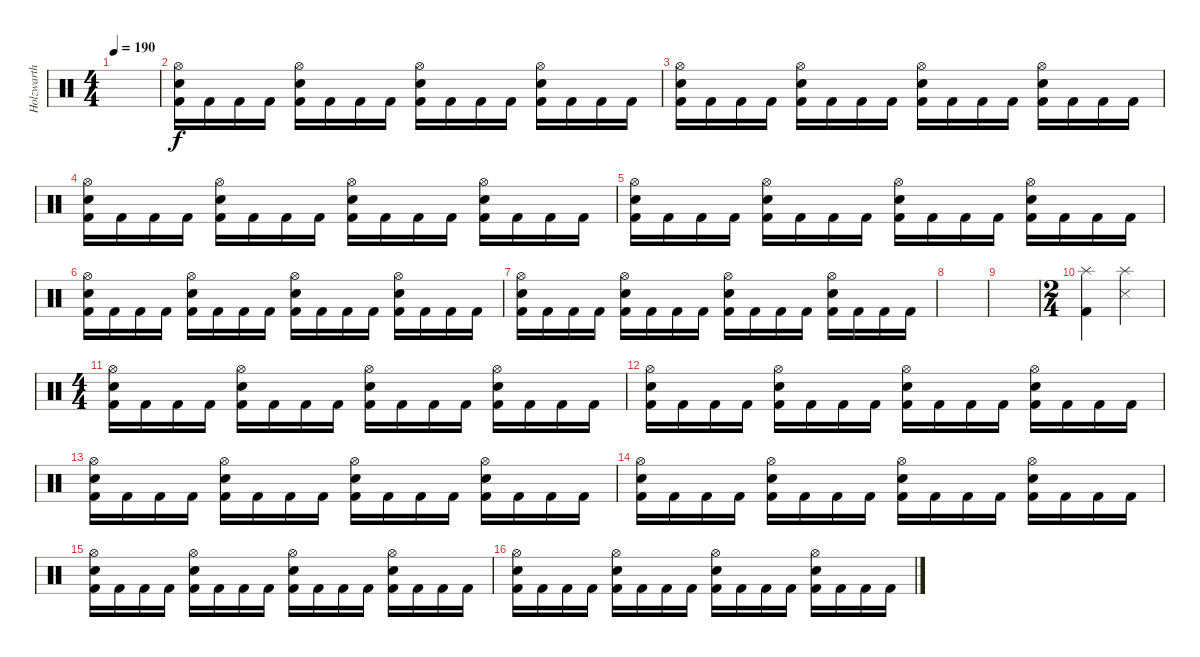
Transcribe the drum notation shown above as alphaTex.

\track ("Holzwarth" "Holzwarth") {instrument percussion}
\staff {score}
\articulation defaults
\ts (4 4)
\tempo 190
\clef neutral
\ks c
|
("Hi-Hat (open)" "Snare (hit) 2" "Kick (hit) 2").16 "Kick (hit) 2".16 "Kick (hit) 2".16 "Kick (hit) 2".16 ("Hi-Hat (open)" "Snare (hit) 2" "Kick (hit) 2").16 "Kick (hit) 2".16 "Kick (hit) 2".16 "Kick (hit) 2".16 ("Hi-Hat (open)" "Snare (hit) 2" "Kick (hit) 2").16 "Kick (hit) 2".16 "Kick (hit) 2".16 "Kick (hit) 2".16 ("Hi-Hat (open)" "Snare (hit) 2" "Kick (hit) 2").16 "Kick (hit) 2".16 "Kick (hit) 2".16 "Kick (hit) 2".16 |
("Hi-Hat (open)" "Snare (hit) 2" "Kick (hit) 2").16 "Kick (hit) 2".16 "Kick (hit) 2".16 "Kick (hit) 2".16 ("Hi-Hat (open)" "Snare (hit) 2" "Kick (hit) 2").16 "Kick (hit) 2".16 "Kick (hit) 2".16 "Kick (hit) 2".16 ("Hi-Hat (open)" "Snare (hit) 2" "Kick (hit) 2").16 "Kick (hit) 2".16 "Kick (hit) 2".16 "Kick (hit) 2".16 ("Hi-Hat (open)" "Snare (hit) 2" "Kick (hit) 2").16 "Kick (hit) 2".16 "Kick (hit) 2".16 "Kick (hit) 2".16 |
("Hi-Hat (open)" "Snare (hit) 2" "Kick (hit) 2").16 "Kick (hit) 2".16 "Kick (hit) 2".16 "Kick (hit) 2".16 ("Hi-Hat (open)" "Snare (hit) 2" "Kick (hit) 2").16 "Kick (hit) 2".16 "Kick (hit) 2".16 "Kick (hit) 2".16 ("Hi-Hat (open)" "Snare (hit) 2" "Kick (hit) 2").16 "Kick (hit) 2".16 "Kick (hit) 2".16 "Kick (hit) 2".16 ("Hi-Hat (open)" "Snare (hit) 2" "Kick (hit) 2").16 "Kick (hit) 2".16 "Kick (hit) 2".16 "Kick (hit) 2".16 |
("Hi-Hat (open)" "Snare (hit) 2" "Kick (hit) 2").16 "Kick (hit) 2".16 "Kick (hit) 2".16 "Kick (hit) 2".16 ("Hi-Hat (open)" "Snare (hit) 2" "Kick (hit) 2").16 "Kick (hit) 2".16 "Kick (hit) 2".16 "Kick (hit) 2".16 ("Hi-Hat (open)" "Snare (hit) 2" "Kick (hit) 2").16 "Kick (hit) 2".16 "Kick (hit) 2".16 "Kick (hit) 2".16 ("Hi-Hat (open)" "Snare (hit) 2" "Kick (hit) 2").16 "Kick (hit) 2".16 "Kick (hit) 2".16 "Kick (hit) 2".16 |
("Hi-Hat (open)" "Snare (hit) 2" "Kick (hit) 2").16 "Kick (hit) 2".16 "Kick (hit) 2".16 "Kick (hit) 2".16 ("Hi-Hat (open)" "Snare (hit) 2" "Kick (hit) 2").16 "Kick (hit) 2".16 "Kick (hit) 2".16 "Kick (hit) 2".16 ("Hi-Hat (open)" "Snare (hit) 2" "Kick (hit) 2").16 "Kick (hit) 2".16 "Kick (hit) 2".16 "Kick (hit) 2".16 ("Hi-Hat (open)" "Snare (hit) 2" "Kick (hit) 2").16 "Kick (hit) 2".16 "Kick (hit) 2".16 "Kick (hit) 2".16 |
("Hi-Hat (open)" "Snare (hit) 2" "Kick (hit) 2").16 "Kick (hit) 2".16 "Kick (hit) 2".16 "Kick (hit) 2".16 ("Hi-Hat (open)" "Snare (hit) 2" "Kick (hit) 2").16 "Kick (hit) 2".16 "Kick (hit) 2".16 "Kick (hit) 2".16 ("Hi-Hat (open)" "Snare (hit) 2" "Kick (hit) 2").16 "Kick (hit) 2".16 "Kick (hit) 2".16 "Kick (hit) 2".16 ("Hi-Hat (open)" "Snare (hit) 2" "Kick (hit) 2").16 "Kick (hit) 2".16 "Kick (hit) 2".16 "Kick (hit) 2".16 |
|
|
\ts (2 4)
("Splash (hit)" "Kick (hit) 2").4 ("Splash (hit)" "Metronome (hit)").4 |
\ts (4 4)
("Hi-Hat (open)" "Snare (hit) 2" "Kick (hit) 2").16 "Kick (hit) 2".16 "Kick (hit) 2".16 "Kick (hit) 2".16 ("Hi-Hat (open)" "Snare (hit) 2" "Kick (hit) 2").16 "Kick (hit) 2".16 "Kick (hit) 2".16 "Kick (hit) 2".16 ("Hi-Hat (open)" "Snare (hit) 2" "Kick (hit) 2").16 "Kick (hit) 2".16 "Kick (hit) 2".16 "Kick (hit) 2".16 ("Hi-Hat (open)" "Snare (hit) 2" "Kick (hit) 2").16 "Kick (hit) 2".16 "Kick (hit) 2".16 "Kick (hit) 2".16 |
("Hi-Hat (open)" "Snare (hit) 2" "Kick (hit) 2").16 "Kick (hit) 2".16 "Kick (hit) 2".16 "Kick (hit) 2".16 ("Hi-Hat (open)" "Snare (hit) 2" "Kick (hit) 2").16 "Kick (hit) 2".16 "Kick (hit) 2".16 "Kick (hit) 2".16 ("Hi-Hat (open)" "Snare (hit) 2" "Kick (hit) 2").16 "Kick (hit) 2".16 "Kick (hit) 2".16 "Kick (hit) 2".16 ("Hi-Hat (open)" "Snare (hit) 2" "Kick (hit) 2").16 "Kick (hit) 2".16 "Kick (hit) 2".16 "Kick (hit) 2".16 |
("Hi-Hat (open)" "Snare (hit) 2" "Kick (hit) 2").16 "Kick (hit) 2".16 "Kick (hit) 2".16 "Kick (hit) 2".16 ("Hi-Hat (open)" "Snare (hit) 2" "Kick (hit) 2").16 "Kick (hit) 2".16 "Kick (hit) 2".16 "Kick (hit) 2".16 ("Hi-Hat (open)" "Snare (hit) 2" "Kick (hit) 2").16 "Kick (hit) 2".16 "Kick (hit) 2".16 "Kick (hit) 2".16 ("Hi-Hat (open)" "Snare (hit) 2" "Kick (hit) 2").16 "Kick (hit) 2".16 "Kick (hit) 2".16 "Kick (hit) 2".16 |
("Hi-Hat (open)" "Snare (hit) 2" "Kick (hit) 2").16 "Kick (hit) 2".16 "Kick (hit) 2".16 "Kick (hit) 2".16 ("Hi-Hat (open)" "Snare (hit) 2" "Kick (hit) 2").16 "Kick (hit) 2".16 "Kick (hit) 2".16 "Kick (hit) 2".16 ("Hi-Hat (open)" "Snare (hit) 2" "Kick (hit) 2").16 "Kick (hit) 2".16 "Kick (hit) 2".16 "Kick (hit) 2".16 ("Hi-Hat (open)" "Snare (hit) 2" "Kick (hit) 2").16 "Kick (hit) 2".16 "Kick (hit) 2".16 "Kick (hit) 2".16 |
("Hi-Hat (open)" "Snare (hit) 2" "Kick (hit) 2").16 "Kick (hit) 2".16 "Kick (hit) 2".16 "Kick (hit) 2".16 ("Hi-Hat (open)" "Snare (hit) 2" "Kick (hit) 2").16 "Kick (hit) 2".16 "Kick (hit) 2".16 "Kick (hit) 2".16 ("Hi-Hat (open)" "Snare (hit) 2" "Kick (hit) 2").16 "Kick (hit) 2".16 "Kick (hit) 2".16 "Kick (hit) 2".16 ("Hi-Hat (open)" "Snare (hit) 2" "Kick (hit) 2").16 "Kick (hit) 2".16 "Kick (hit) 2".16 "Kick (hit) 2".16 |
("Hi-Hat (open)" "Snare (hit) 2" "Kick (hit) 2").16 "Kick (hit) 2".16 "Kick (hit) 2".16 "Kick (hit) 2".16 ("Hi-Hat (open)" "Snare (hit) 2" "Kick (hit) 2").16 "Kick (hit) 2".16 "Kick (hit) 2".16 "Kick (hit) 2".16 ("Hi-Hat (open)" "Snare (hit) 2" "Kick (hit) 2").16 "Kick (hit) 2".16 "Kick (hit) 2".16 "Kick (hit) 2".16 ("Hi-Hat (open)" "Snare (hit) 2" "Kick (hit) 2").16 "Kick (hit) 2".16 "Kick (hit) 2".16 "Kick (hit) 2".16
